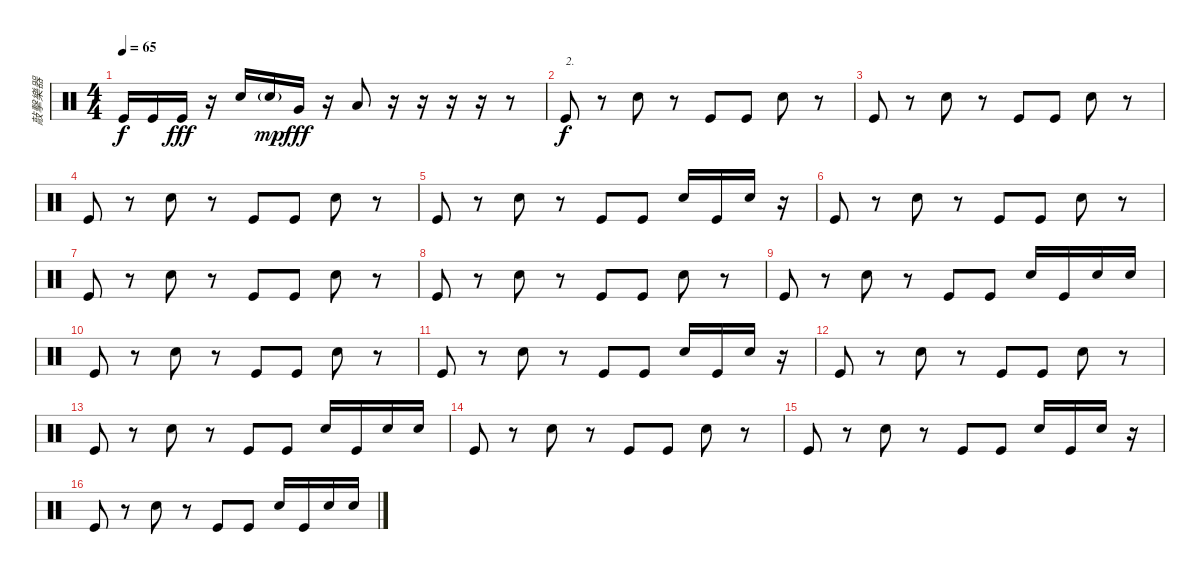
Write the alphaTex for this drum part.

\track ("敲擊樂器" "敲擊樂器") {instrument percussion}
\staff {score}
\articulation defaults
\ts (4 4)
\tempo 65
\clef neutral
\ks c "Kick (hit)".16{dy f} "Kick (hit)".16 "Kick (hit)".16{dy fff}
r.16 "Electric Snare (hit)".16 "Electric Snare (hit)"{g}.16{dy mp} "Very Low Tom (hit)".16{dy fff} r.16 "Low Floor Tom (hit)".8 r.16 r.16 r.16 r.16 r.8 |
"Kick (hit)".8{txt "2." dy f} r.8 "Electric Snare (hit)".8 r.8 "Kick (hit)".8 "Kick (hit)".8 "Electric Snare (hit)".8 r.8 |
"Kick (hit)".8 r.8 "Electric Snare (hit)".8 r.8 "Kick (hit)".8 "Kick (hit)".8 "Electric Snare (hit)".8 r.8 |
"Kick (hit)".8 r.8 "Electric Snare (hit)".8 r.8 "Kick (hit)".8 "Kick (hit)".8 "Electric Snare (hit)".8 r.8 |
"Kick (hit)".8 r.8 "Electric Snare (hit)".8 r.8 "Kick (hit)".8 "Kick (hit)".8 "Electric Snare (hit)".16 "Kick (hit)".16 "Electric Snare (hit)".16 r.16 |
"Kick (hit)".8 r.8 "Electric Snare (hit)".8 r.8 "Kick (hit)".8 "Kick (hit)".8 "Electric Snare (hit)".8 r.8 |
"Kick (hit)".8 r.8 "Electric Snare (hit)".8 r.8 "Kick (hit)".8 "Kick (hit)".8 "Electric Snare (hit)".8 r.8 |
"Kick (hit)".8 r.8 "Electric Snare (hit)".8 r.8 "Kick (hit)".8 "Kick (hit)".8 "Electric Snare (hit)".8 r.8 |
"Kick (hit)".8 r.8 "Electric Snare (hit)".8 r.8 "Kick (hit)".8 "Kick (hit)".8 "Electric Snare (hit)".16 "Kick (hit)".16 "Electric Snare (hit)".16 "Electric Snare (hit)".16 |
"Kick (hit)".8 r.8 "Electric Snare (hit)".8 r.8 "Kick (hit)".8 "Kick (hit)".8 "Electric Snare (hit)".8 r.8 |
"Kick (hit)".8 r.8 "Electric Snare (hit)".8 r.8 "Kick (hit)".8 "Kick (hit)".8 "Electric Snare (hit)".16 "Kick (hit)".16 "Electric Snare (hit)".16 r.16 |
"Kick (hit)".8 r.8 "Electric Snare (hit)".8 r.8 "Kick (hit)".8 "Kick (hit)".8 "Electric Snare (hit)".8 r.8 |
"Kick (hit)".8 r.8 "Electric Snare (hit)".8 r.8 "Kick (hit)".8 "Kick (hit)".8 "Electric Snare (hit)".16 "Kick (hit)".16 "Electric Snare (hit)".16 "Electric Snare (hit)".16 |
"Kick (hit)".8 r.8 "Electric Snare (hit)".8 r.8 "Kick (hit)".8 "Kick (hit)".8 "Electric Snare (hit)".8 r.8 |
"Kick (hit)".8 r.8 "Electric Snare (hit)".8 r.8 "Kick (hit)".8 "Kick (hit)".8 "Electric Snare (hit)".16 "Kick (hit)".16 "Electric Snare (hit)".16 r.16 |
"Kick (hit)".8 r.8 "Electric Snare (hit)".8 r.8 "Kick (hit)".8 "Kick (hit)".8 "Electric Snare (hit)".16 "Kick (hit)".16 "Electric Snare (hit)".16 "Electric Snare (hit)".16
